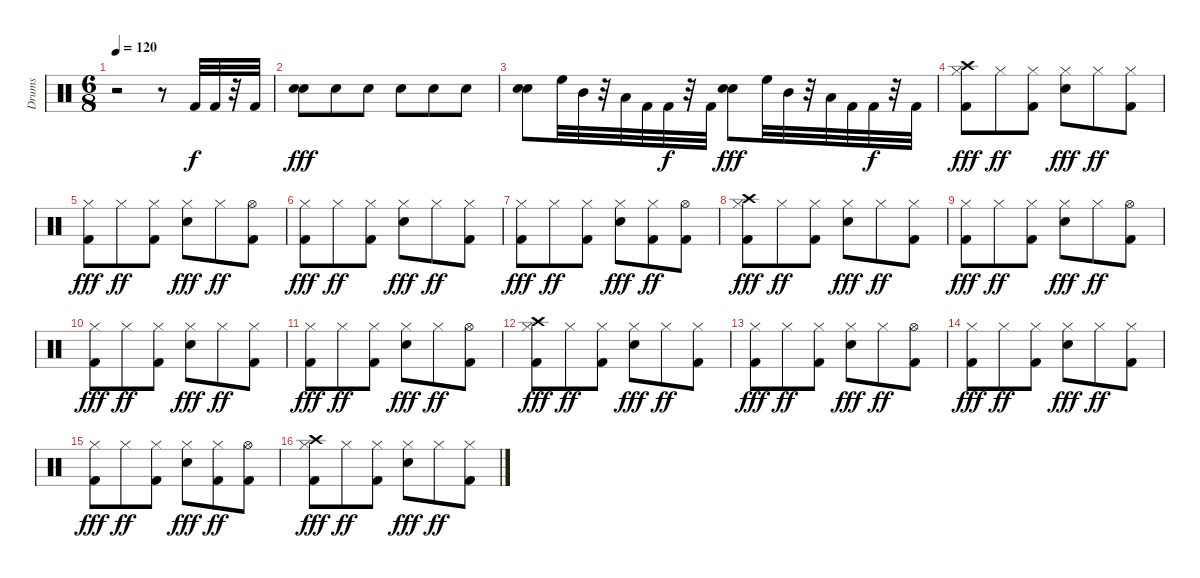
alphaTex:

\track ("Drums" "Drums") {instrument percussion}
\staff {score}
\articulation defaults
\ts (6 8)
\tempo 120
\clef neutral
\ks c
r.2{dy f} r.8 "Kick (hit) 2".32 "Kick (hit) 2".32 r.32 "Kick (hit) 2".32 |
("Electric Snare (hit)" "Snare (hit) 2").8{dy fff} "Electric Snare (hit)".8 "Electric Snare (hit)".8 "Electric Snare (hit)".8 "Electric Snare (hit)".8 "Electric Snare (hit)".8 |
("Electric Snare (hit)" "Snare (hit) 2").8 "High Floor Tom (hit)".32 "Mid Tom (hit)".32 r.32 "Low Tom (hit)".32 "Kick (hit) 2".32 "Kick (hit) 2".32{dy f} r.32 "Kick (hit) 2".32 ("Snare (hit) 2" "Electric Snare (hit)").8{dy fff} "High Floor Tom (hit)".32 "Mid Tom (hit)".32 r.32 "Low Tom (hit)".32 "Kick (hit) 2".32 "Kick (hit) 2".32{dy f} r.32 "Kick (hit) 2".32 |
("Hi-Hat (closed)" "Kick (hit) 2" "Crash high (hit)").8{dy fff} "Hi-Hat (closed)".8{dy ff} ("Hi-Hat (closed)" "Kick (hit) 2").8 ("Hi-Hat (closed)" "Snare (hit) 2").8{dy fff} "Hi-Hat (closed)".8{dy ff} ("Hi-Hat (closed)" "Kick (hit) 2").8 |
("Hi-Hat (closed)" "Kick (hit) 2").8{dy fff} "Hi-Hat (closed)".8{dy ff} ("Hi-Hat (closed)" "Kick (hit) 2").8 ("Hi-Hat (closed)" "Snare (hit) 2").8{dy fff} "Hi-Hat (closed)".8{dy ff} ("Hi-Hat (open)" "Kick (hit) 2").8 |
("Hi-Hat (closed)" "Kick (hit) 2").8{dy fff} "Hi-Hat (closed)".8{dy ff} ("Hi-Hat (closed)" "Kick (hit) 2").8 ("Hi-Hat (closed)" "Snare (hit) 2").8{dy fff} "Hi-Hat (closed)".8{dy ff} ("Hi-Hat (closed)" "Kick (hit) 2").8 |
("Hi-Hat (closed)" "Kick (hit) 2").8{dy fff} "Hi-Hat (closed)".8{dy ff} ("Hi-Hat (closed)" "Kick (hit) 2").8 ("Hi-Hat (closed)" "Snare (hit) 2").8{dy fff} ("Hi-Hat (closed)" "Kick (hit) 2").8{dy ff} ("Hi-Hat (open)" "Kick (hit) 2").8 |
("Hi-Hat (closed)" "Kick (hit) 2" "Crash high (hit)").8{dy fff} "Hi-Hat (closed)".8{dy ff} ("Hi-Hat (closed)" "Kick (hit) 2").8 ("Hi-Hat (closed)" "Snare (hit) 2").8{dy fff} "Hi-Hat (closed)".8{dy ff} ("Hi-Hat (closed)" "Kick (hit) 2").8 |
("Hi-Hat (closed)" "Kick (hit) 2").8{dy fff} "Hi-Hat (closed)".8{dy ff} ("Hi-Hat (closed)" "Kick (hit) 2").8 ("Hi-Hat (closed)" "Snare (hit) 2").8{dy fff} "Hi-Hat (closed)".8{dy ff} ("Hi-Hat (open)" "Kick (hit) 2").8 |
("Hi-Hat (closed)" "Kick (hit) 2").8{dy fff} "Hi-Hat (closed)".8{dy ff} ("Hi-Hat (closed)" "Kick (hit) 2").8 ("Hi-Hat (closed)" "Snare (hit) 2").8{dy fff} "Hi-Hat (closed)".8{dy ff} ("Hi-Hat (closed)" "Kick (hit) 2").8 |
("Hi-Hat (closed)" "Kick (hit) 2").8{dy fff} "Hi-Hat (closed)".8{dy ff} ("Hi-Hat (closed)" "Kick (hit) 2").8 ("Hi-Hat (closed)" "Snare (hit) 2").8{dy fff} "Hi-Hat (closed)".8{dy ff} ("Hi-Hat (open)" "Kick (hit) 2").8 |
("Hi-Hat (closed)" "Kick (hit) 2" "Crash high (hit)").8{dy fff} "Hi-Hat (closed)".8{dy ff} ("Hi-Hat (closed)" "Kick (hit) 2").8 ("Hi-Hat (closed)" "Snare (hit) 2").8{dy fff} "Hi-Hat (closed)".8{dy ff} ("Hi-Hat (closed)" "Kick (hit) 2").8 |
("Hi-Hat (closed)" "Kick (hit) 2").8{dy fff} "Hi-Hat (closed)".8{dy ff} ("Hi-Hat (closed)" "Kick (hit) 2").8 ("Hi-Hat (closed)" "Snare (hit) 2").8{dy fff} "Hi-Hat (closed)".8{dy ff} ("Hi-Hat (open)" "Kick (hit) 2").8 |
("Hi-Hat (closed)" "Kick (hit) 2").8{dy fff} "Hi-Hat (closed)".8{dy ff} ("Hi-Hat (closed)" "Kick (hit) 2").8 ("Hi-Hat (closed)" "Snare (hit) 2").8{dy fff} "Hi-Hat (closed)".8{dy ff} ("Hi-Hat (closed)" "Kick (hit) 2").8 |
("Hi-Hat (closed)" "Kick (hit) 2").8{dy fff} "Hi-Hat (closed)".8{dy ff} ("Hi-Hat (closed)" "Kick (hit) 2").8 ("Hi-Hat (closed)" "Snare (hit) 2").8{dy fff} ("Hi-Hat (closed)" "Kick (hit) 2").8{dy ff} ("Hi-Hat (open)" "Kick (hit) 2").8 |
("Hi-Hat (closed)" "Kick (hit) 2" "Crash high (hit)").8{dy fff} "Hi-Hat (closed)".8{dy ff} ("Hi-Hat (closed)" "Kick (hit) 2").8 ("Hi-Hat (closed)" "Snare (hit) 2").8{dy fff} "Hi-Hat (closed)".8{dy ff} ("Hi-Hat (closed)" "Kick (hit) 2").8
